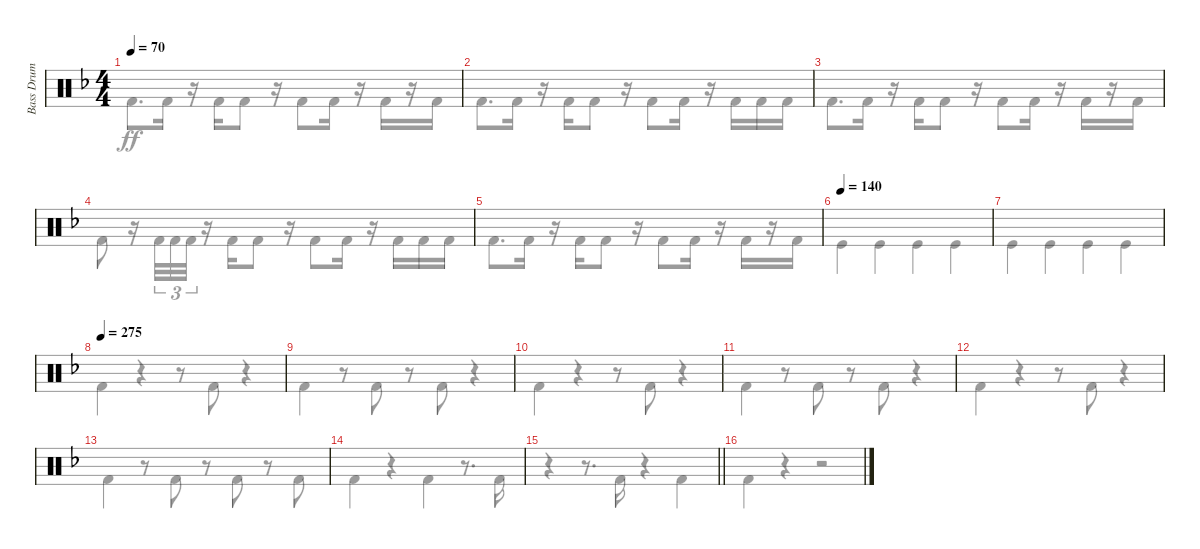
\track ("Bass Drum" "Bass Drum") {instrument percussion}
\staff {score}
\articulation defaults
\voice
\ts (4 4)
\tempo 70
\clef neutral
\ks dminor
|
|
|
|
|
\tempo 140
|
|
\tempo 275
|
|
|
|
|
|
|
\barLineRight lightlight
|
\voice
\clef neutral
\ks dminor "Kick (hit) 2".8{d dy ff} "Kick (hit) 2".16
r.16 "Kick (hit) 2".16 "Kick (hit) 2".8 r.16 "Kick (hit) 2".8 "Kick (hit) 2".16 r.16 "Kick (hit) 2".16 r.16 "Kick (hit) 2".16 |
"Kick (hit) 2".8{d} "Kick (hit) 2".16 r.16 "Kick (hit) 2".16 "Kick (hit) 2".8 r.16 "Kick (hit) 2".8 "Kick (hit) 2".16 r.16 "Kick (hit) 2".16 "Kick (hit) 2".16 "Kick (hit) 2".16 |
"Kick (hit) 2".8{d} "Kick (hit) 2".16 r.16 "Kick (hit) 2".16 "Kick (hit) 2".8 r.16 "Kick (hit) 2".8 "Kick (hit) 2".16 r.16 "Kick (hit) 2".16 r.16 "Kick (hit) 2".16 |
"Kick (hit) 2".8 r.16 "Kick (hit) 2".32{tu (3 2)} "Kick (hit) 2".32{tu (3 2)} "Kick (hit) 2".32{tu (3 2)} r.16 "Kick (hit) 2".16 "Kick (hit) 2".8 r.16 "Kick (hit) 2".8 "Kick (hit) 2".16 r.16 "Kick (hit) 2".16 "Kick (hit) 2".16 "Kick (hit) 2".16 |
"Kick (hit) 2".8{d} "Kick (hit) 2".16 r.16 "Kick (hit) 2".16 "Kick (hit) 2".8 r.16 "Kick (hit) 2".8 "Kick (hit) 2".16 r.16 "Kick (hit) 2".16 r.16 "Kick (hit) 2".16 |
"Kick (hit)".4 "Kick (hit)".4 "Kick (hit)".4 "Kick (hit)".4 |
"Kick (hit)".4 "Kick (hit)".4 "Kick (hit)".4 "Kick (hit)".4 |
"Kick (hit) 2".4 r.4 r.8 "Kick (hit) 2".8 r.4 |
"Kick (hit) 2".4 r.8 "Kick (hit) 2".8 r.8 "Kick (hit) 2".8 r.4 |
"Kick (hit) 2".4 r.4 r.8 "Kick (hit) 2".8 r.4 |
"Kick (hit) 2".4 r.8 "Kick (hit) 2".8 r.8 "Kick (hit) 2".8 r.4 |
"Kick (hit) 2".4 r.4 r.8 "Kick (hit) 2".8 r.4 |
"Kick (hit) 2".4 r.8 "Kick (hit) 2".8 r.8 "Kick (hit) 2".8 r.8 "Kick (hit) 2".8 |
"Kick (hit) 2".4 r.4 "Kick (hit) 2".4 r.8{d} "Kick (hit) 2".16 |
\barLineRight lightlight
r.4 r.8{d} "Kick (hit) 2".16 r.4 "Kick (hit) 2".4 |
"Kick (hit) 2".4 r.4 r.2
